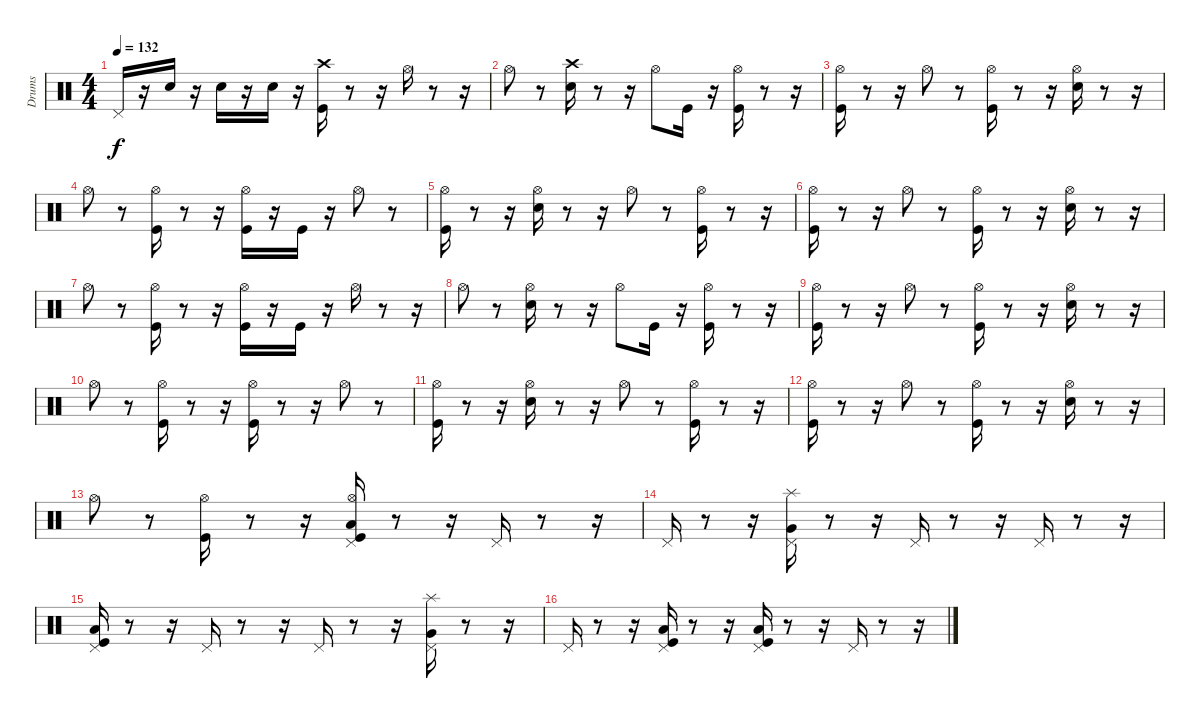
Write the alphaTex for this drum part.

\track ("Drums" "Drums") {instrument percussion}
\staff {score}
\articulation defaults
\ts (4 4)
\tempo 132
\clef neutral
\ks c "Pedal Hi-Hat (hit)".16{dy f}
r.16 "Snare (hit) 2".16 r.16 "Snare (hit) 2".16 r.16 "Snare (hit) 2".16 r.16 ("Kick (hit)" "Crash high (hit)").16 r.8 r.16 "Hi-Hat (open)".16 r.8 r.16 |
"Hi-Hat (open)".8 r.8 ("Snare (hit) 2" "Crash high (hit)").16 r.8 r.16 "Hi-Hat (open)".8 "Kick (hit)".16 r.16 ("Hi-Hat (open)" "Kick (hit)").16 r.8 r.16 |
("Kick (hit)" "Hi-Hat (open)").16 r.8 r.16 "Hi-Hat (open)".8 r.8 ("Hi-Hat (open)" "Kick (hit)").16 r.8 r.16 ("Hi-Hat (open)" "Snare (hit) 2").16 r.8 r.16 |
"Hi-Hat (open)".8 r.8 ("Hi-Hat (open)" "Kick (hit)").16 r.8 r.16 ("Hi-Hat (open)" "Kick (hit)").16 r.16 "Kick (hit)".16 r.16 "Hi-Hat (open)".8 r.8 |
("Kick (hit)" "Hi-Hat (open)").16 r.8 r.16 ("Hi-Hat (open)" "Snare (hit) 2").16 r.8 r.16 "Hi-Hat (open)".8 r.8 ("Hi-Hat (open)" "Kick (hit)").16 r.8 r.16 |
("Hi-Hat (open)" "Kick (hit)").16 r.8 r.16 "Hi-Hat (open)".8 r.8 ("Kick (hit)" "Hi-Hat (open)").16 r.8 r.16 ("Hi-Hat (open)" "Snare (hit) 2").16 r.8 r.16 |
"Hi-Hat (open)".8 r.8 ("Hi-Hat (open)" "Kick (hit)").16 r.8 r.16 ("Hi-Hat (open)" "Kick (hit)").16 r.16 "Kick (hit)".16 r.16 "Hi-Hat (open)".16 r.8 r.16 |
"Hi-Hat (open)".8 r.8 ("Snare (hit) 2" "Hi-Hat (open)").16 r.8 r.16 "Hi-Hat (open)".8 "Kick (hit)".16 r.16 ("Hi-Hat (open)" "Kick (hit)").16 r.8 r.16 |
("Kick (hit)" "Hi-Hat (open)").16 r.8 r.16 "Hi-Hat (open)".8 r.8 ("Hi-Hat (open)" "Kick (hit)").16 r.8 r.16 ("Hi-Hat (open)" "Snare (hit) 2").16 r.8 r.16 |
"Hi-Hat (open)".8 r.8 ("Hi-Hat (open)" "Kick (hit)").16 r.8 r.16 ("Hi-Hat (open)" "Kick (hit)").16 r.8 r.16 "Hi-Hat (open)".8 r.8 |
("Kick (hit)" "Hi-Hat (open)").16 r.8 r.16 ("Hi-Hat (open)" "Snare (hit) 2").16 r.8 r.16 "Hi-Hat (open)".8 r.8 ("Hi-Hat (open)" "Kick (hit)").16 r.8 r.16 |
("Hi-Hat (open)" "Kick (hit)").16 r.8 r.16 "Hi-Hat (open)".8 r.8 ("Kick (hit)" "Hi-Hat (open)").16 r.8 r.16 ("Hi-Hat (open)" "Snare (hit) 2").16 r.8 r.16 |
"Hi-Hat (open)".8 r.8 ("Hi-Hat (open)" "Kick (hit)").16 r.8 r.16 ("Hi-Hat (open)" "Kick (hit)" "Pedal Hi-Hat (hit)" "Low Floor Tom (hit)").16 r.8 r.16 "Pedal Hi-Hat (hit)".16 r.8 r.16 |
"Pedal Hi-Hat (hit)".16 r.8 r.16 ("Pedal Hi-Hat (hit)" "Very Low Tom (hit)" "Splash (hit)").16 r.8 r.16 "Pedal Hi-Hat (hit)".16 r.8 r.16 "Pedal Hi-Hat (hit)".16 r.8 r.16 |
("Low Floor Tom (hit)" "Pedal Hi-Hat (hit)" "Kick (hit)").16 r.8 r.16 "Pedal Hi-Hat (hit)".16 r.8 r.16 "Pedal Hi-Hat (hit)".16 r.8 r.16 ("Pedal Hi-Hat (hit)" "Very Low Tom (hit)" "Splash (hit)").16 r.8 r.16 |
"Pedal Hi-Hat (hit)".16 r.8 r.16 ("Pedal Hi-Hat (hit)" "Low Floor Tom (hit)" "Kick (hit)").16 r.8 r.16 ("Low Floor Tom (hit)" "Pedal Hi-Hat (hit)" "Kick (hit)").16 r.8 r.16 "Pedal Hi-Hat (hit)".16 r.8 r.16
